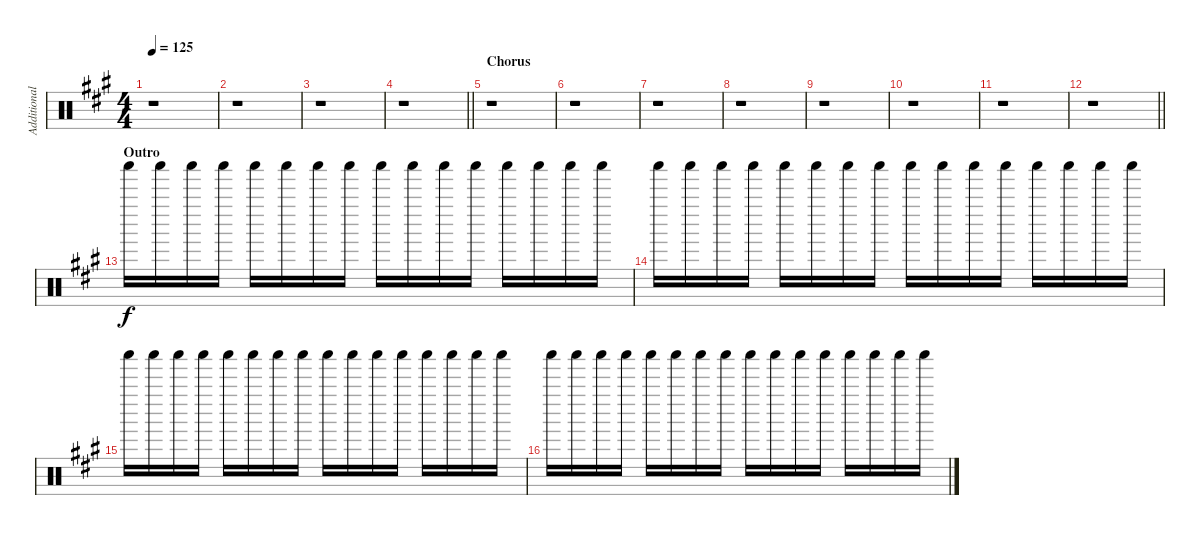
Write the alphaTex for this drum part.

\track ("Additional Percussion I" "Additional") {instrument percussion}
\staff {score}
\articulation defaults
\ts (4 4)
\tempo 125
\clef neutral
\ks a
r.1{dy f} |
r.1 |
r.1 |
\barLineRight lightlight
r.1 |
\section ("" "Chorus")
r.1 |
r.1 |
r.1 |
r.1 |
r.1 |
r.1 |
r.1 |
\barLineRight lightlight
r.1 |
\section ("" "Outro")
"Shaker (hit)".16 "Shaker (hit)".16 "Shaker (hit)".16 "Shaker (hit)".16 "Shaker (hit)".16 "Shaker (hit)".16 "Shaker (hit)".16 "Shaker (hit)".16 "Shaker (hit)".16 "Shaker (hit)".16 "Shaker (hit)".16 "Shaker (hit)".16 "Shaker (hit)".16 "Shaker (hit)".16 "Shaker (hit)".16 "Shaker (hit)".16 |
"Shaker (hit)".16 "Shaker (hit)".16 "Shaker (hit)".16 "Shaker (hit)".16 "Shaker (hit)".16 "Shaker (hit)".16 "Shaker (hit)".16 "Shaker (hit)".16 "Shaker (hit)".16 "Shaker (hit)".16 "Shaker (hit)".16 "Shaker (hit)".16 "Shaker (hit)".16 "Shaker (hit)".16 "Shaker (hit)".16 "Shaker (hit)".16 |
"Shaker (hit)".16 "Shaker (hit)".16 "Shaker (hit)".16 "Shaker (hit)".16 "Shaker (hit)".16 "Shaker (hit)".16 "Shaker (hit)".16 "Shaker (hit)".16 "Shaker (hit)".16 "Shaker (hit)".16 "Shaker (hit)".16 "Shaker (hit)".16 "Shaker (hit)".16 "Shaker (hit)".16 "Shaker (hit)".16 "Shaker (hit)".16 |
"Shaker (hit)".16 "Shaker (hit)".16 "Shaker (hit)".16 "Shaker (hit)".16 "Shaker (hit)".16 "Shaker (hit)".16 "Shaker (hit)".16 "Shaker (hit)".16 "Shaker (hit)".16 "Shaker (hit)".16 "Shaker (hit)".16 "Shaker (hit)".16 "Shaker (hit)".16 "Shaker (hit)".16 "Shaker (hit)".16 "Shaker (hit)".16
